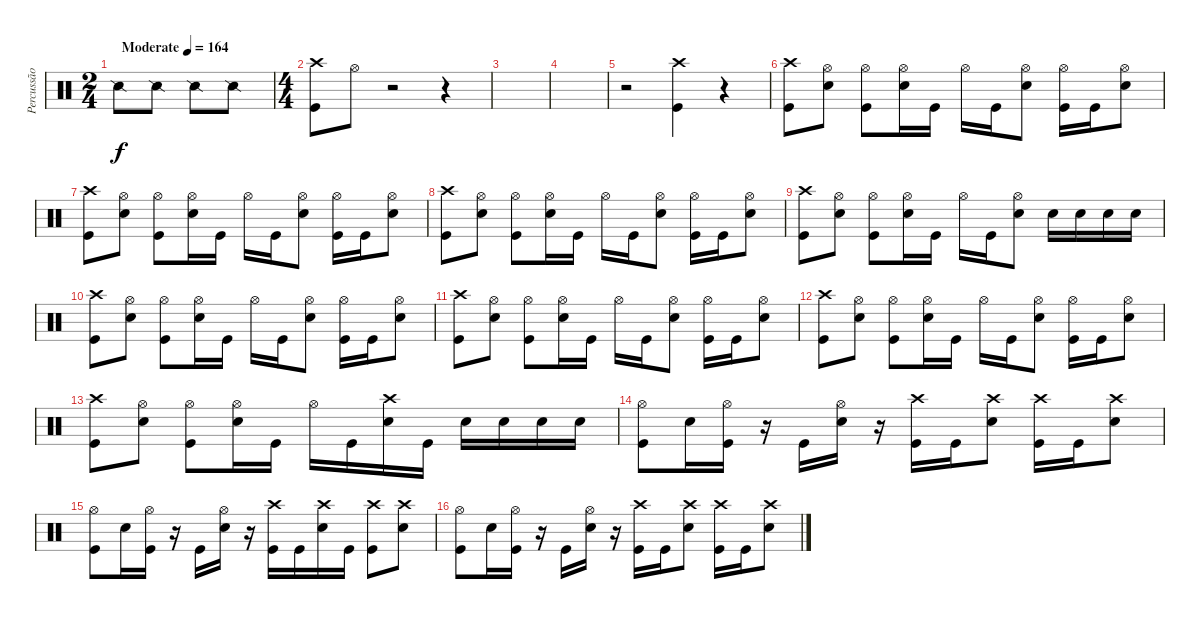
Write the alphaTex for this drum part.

\track ("Percussão" "Percussão") {instrument percussion}
\staff {score}
\articulation defaults
\ts (2 4)
\tempo (164 "Moderate")
\clef neutral
\ks c "Snare (side stick) 2".8{dy f} "Snare (side stick) 2".8 "Snare (side stick) 2".8 "Snare (side stick) 2".8
|
\ts (4 4)
("Crash high (hit)" "Kick (hit)").8 "Hi-Hat (open)".8 r.2 r.4 |
|
|
r.2 ("Crash high (hit)" "Kick (hit)").4 r.4 |
("Crash high (hit)" "Kick (hit)").8 ("Hi-Hat (open)" "Electric Snare (hit)").8 ("Hi-Hat (open)" "Kick (hit)").8 ("Hi-Hat (open)" "Electric Snare (hit)").16 "Kick (hit)".16 "Hi-Hat (open)".16 "Kick (hit)".16 ("Hi-Hat (open)" "Electric Snare (hit)").8 ("Hi-Hat (open)" "Kick (hit)").16 "Kick (hit)".16 ("Hi-Hat (open)" "Electric Snare (hit)").8 |
("Crash high (hit)" "Kick (hit)").8 ("Hi-Hat (open)" "Electric Snare (hit)").8 ("Hi-Hat (open)" "Kick (hit)").8 ("Hi-Hat (open)" "Electric Snare (hit)").16 "Kick (hit)".16 "Hi-Hat (open)".16 "Kick (hit)".16 ("Hi-Hat (open)" "Electric Snare (hit)").8 ("Hi-Hat (open)" "Kick (hit)").16 "Kick (hit)".16 ("Hi-Hat (open)" "Electric Snare (hit)").8 |
("Crash high (hit)" "Kick (hit)").8 ("Hi-Hat (open)" "Electric Snare (hit)").8 ("Hi-Hat (open)" "Kick (hit)").8 ("Hi-Hat (open)" "Electric Snare (hit)").16 "Kick (hit)".16 "Hi-Hat (open)".16 "Kick (hit)".16 ("Hi-Hat (open)" "Electric Snare (hit)").8 ("Hi-Hat (open)" "Kick (hit)").16 "Kick (hit)".16 ("Hi-Hat (open)" "Electric Snare (hit)").8 |
("Crash high (hit)" "Kick (hit)").8 ("Hi-Hat (open)" "Electric Snare (hit)").8 ("Hi-Hat (open)" "Kick (hit)").8 ("Hi-Hat (open)" "Electric Snare (hit)").16 "Kick (hit)".16 "Hi-Hat (open)".16 "Kick (hit)".16 ("Hi-Hat (open)" "Electric Snare (hit)").8 "Electric Snare (hit)".16 "Electric Snare (hit)".16 "Electric Snare (hit)".16 "Electric Snare (hit)".16 |
("Crash high (hit)" "Kick (hit)").8 ("Hi-Hat (open)" "Electric Snare (hit)").8 ("Hi-Hat (open)" "Kick (hit)").8 ("Hi-Hat (open)" "Electric Snare (hit)").16 "Kick (hit)".16 "Hi-Hat (open)".16 "Kick (hit)".16 ("Hi-Hat (open)" "Electric Snare (hit)").8 ("Hi-Hat (open)" "Kick (hit)").16 "Kick (hit)".16 ("Hi-Hat (open)" "Electric Snare (hit)").8 |
("Crash high (hit)" "Kick (hit)").8 ("Hi-Hat (open)" "Electric Snare (hit)").8 ("Hi-Hat (open)" "Kick (hit)").8 ("Hi-Hat (open)" "Electric Snare (hit)").16 "Kick (hit)".16 "Hi-Hat (open)".16 "Kick (hit)".16 ("Hi-Hat (open)" "Electric Snare (hit)").8 ("Hi-Hat (open)" "Kick (hit)").16 "Kick (hit)".16 ("Hi-Hat (open)" "Electric Snare (hit)").8 |
("Crash high (hit)" "Kick (hit)").8 ("Hi-Hat (open)" "Electric Snare (hit)").8 ("Hi-Hat (open)" "Kick (hit)").8 ("Hi-Hat (open)" "Electric Snare (hit)").16 "Kick (hit)".16 "Hi-Hat (open)".16 "Kick (hit)".16 ("Hi-Hat (open)" "Electric Snare (hit)").8 ("Hi-Hat (open)" "Kick (hit)").16 "Kick (hit)".16 ("Hi-Hat (open)" "Electric Snare (hit)").8 |
("Crash high (hit)" "Kick (hit)").8 ("Hi-Hat (open)" "Electric Snare (hit)").8 ("Hi-Hat (open)" "Kick (hit)").8 ("Hi-Hat (open)" "Electric Snare (hit)").16 "Kick (hit)".16 "Hi-Hat (open)".16 "Kick (hit)".16 ("Crash high (hit)" "Electric Snare (hit)").16 "Kick (hit)".16 "Electric Snare (hit)".16 "Electric Snare (hit)".16 "Electric Snare (hit)".16 "Electric Snare (hit)".16 |
("Hi-Hat (open)" "Kick (hit)").8 "Electric Snare (hit)".16 ("Hi-Hat (open)" "Kick (hit)").16 r.16 "Kick (hit)".16 ("Hi-Hat (open)" "Electric Snare (hit)").16 r.16 ("Crash high (hit)" "Kick (hit)").16 "Kick (hit)".16 ("Crash high (hit)" "Electric Snare (hit)").8 ("Crash high (hit)" "Kick (hit)").16 "Kick (hit)".16 ("Crash high (hit)" "Electric Snare (hit)").8 |
("Hi-Hat (open)" "Kick (hit)").8 "Electric Snare (hit)".16 ("Hi-Hat (open)" "Kick (hit)").16 r.16 "Kick (hit)".16 ("Hi-Hat (open)" "Electric Snare (hit)").16 r.16 ("Crash high (hit)" "Kick (hit)").16 "Kick (hit)".16 ("Crash high (hit)" "Electric Snare (hit)").16 "Kick (hit)".16 ("Crash high (hit)" "Kick (hit)").8 ("Crash high (hit)" "Electric Snare (hit)").8 |
("Hi-Hat (open)" "Kick (hit)").8 "Electric Snare (hit)".16 ("Hi-Hat (open)" "Kick (hit)").16 r.16 "Kick (hit)".16 ("Hi-Hat (open)" "Electric Snare (hit)").16 r.16 ("Crash high (hit)" "Kick (hit)").16 "Kick (hit)".16 ("Crash high (hit)" "Electric Snare (hit)").8 ("Crash high (hit)" "Kick (hit)").16 "Kick (hit)".16 ("Crash high (hit)" "Electric Snare (hit)").8
